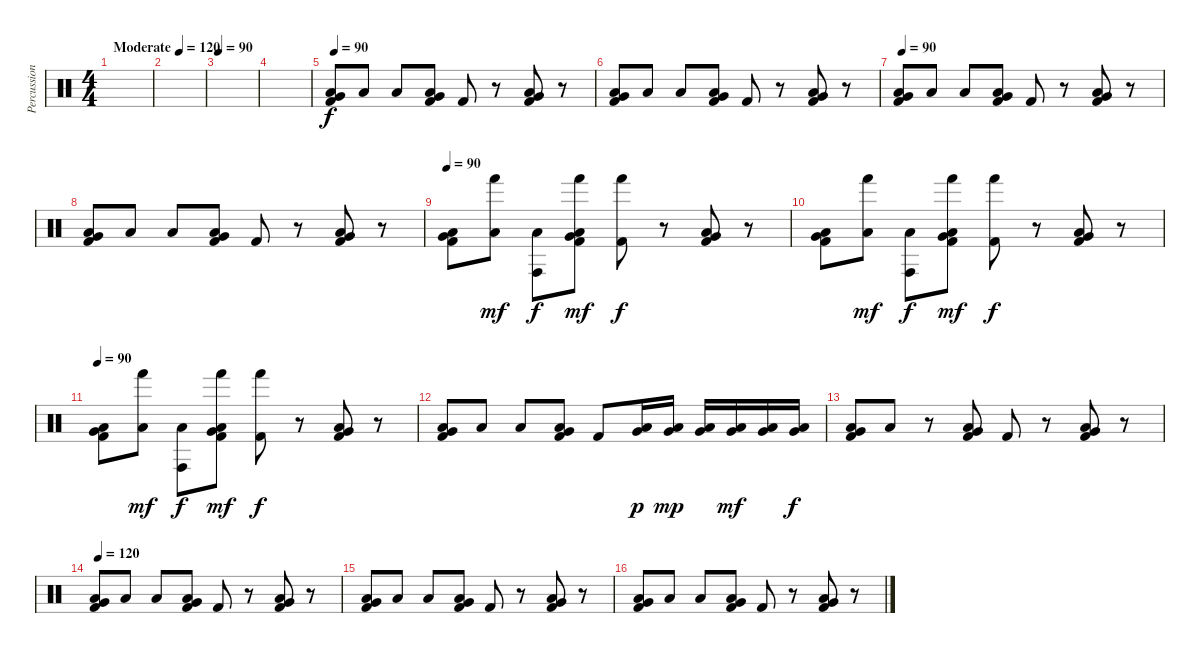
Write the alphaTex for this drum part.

\track ("Percussion" "Percussion") {instrument percussion}
\staff {score}
\articulation defaults
\ts (4 4)
\tempo (120 "Moderate")
\tempo 90
\tempo (120 "Moderate")
\clef neutral
\ks c
|
|
\tempo 90
|
|
\tempo 90
("Low Floor Tom (hit)" "Very Low Tom (hit)" "Kick (hit) 2").8 "Low Floor Tom (hit)".8 "Low Floor Tom (hit)".8 ("Low Floor Tom (hit)" "Very Low Tom (hit)" "Kick (hit) 2").8 "Kick (hit) 2".8 r.8 ("Low Floor Tom (hit)" "Very Low Tom (hit)" "Kick (hit) 2").8 r.8 |
("Low Floor Tom (hit)" "Very Low Tom (hit)" "Kick (hit) 2").8 "Low Floor Tom (hit)".8 "Low Floor Tom (hit)".8 ("Low Floor Tom (hit)" "Very Low Tom (hit)" "Kick (hit) 2").8 "Kick (hit) 2".8 r.8 ("Low Floor Tom (hit)" "Very Low Tom (hit)" "Kick (hit) 2").8 r.8 |
\tempo 90
("Low Floor Tom (hit)" "Very Low Tom (hit)" "Kick (hit) 2").8 "Low Floor Tom (hit)".8 "Low Floor Tom (hit)".8 ("Low Floor Tom (hit)" "Very Low Tom (hit)" "Kick (hit) 2").8 "Kick (hit) 2".8 r.8 ("Low Floor Tom (hit)" "Very Low Tom (hit)" "Kick (hit) 2").8 r.8 |
("Low Floor Tom (hit)" "Very Low Tom (hit)" "Kick (hit) 2").8 "Low Floor Tom (hit)".8 "Low Floor Tom (hit)".8 ("Low Floor Tom (hit)" "Very Low Tom (hit)" "Kick (hit) 2").8 "Kick (hit) 2".8 r.8 ("Low Floor Tom (hit)" "Very Low Tom (hit)" "Kick (hit) 2").8 r.8 |
\tempo 90
("Low Floor Tom (hit)" "Very Low Tom (hit)" "Kick (hit) 2").8 ("Hand (hit)" "Low Floor Tom (hit)").8{dy mf} ("Conga high (hit)" "Low Floor Tom (hit)").8{dy f} ("Low Floor Tom (hit)" "Very Low Tom (hit)" "Hand (hit)" "Kick (hit) 2").8{dy mf} ("Hand (hit)" "Kick (hit) 2").8{dy f} r.8 ("Low Floor Tom (hit)" "Very Low Tom (hit)" "Kick (hit) 2").8 r.8 |
("Low Floor Tom (hit)" "Very Low Tom (hit)" "Kick (hit) 2").8 ("Hand (hit)" "Low Floor Tom (hit)").8{dy mf} ("Conga high (hit)" "Low Floor Tom (hit)").8{dy f} ("Low Floor Tom (hit)" "Very Low Tom (hit)" "Hand (hit)" "Kick (hit) 2").8{dy mf} ("Hand (hit)" "Kick (hit) 2").8{dy f} r.8 ("Low Floor Tom (hit)" "Very Low Tom (hit)" "Kick (hit) 2").8 r.8 |
\tempo 90
("Low Floor Tom (hit)" "Very Low Tom (hit)" "Kick (hit) 2").8 ("Hand (hit)" "Low Floor Tom (hit)").8{dy mf} ("Conga high (hit)" "Low Floor Tom (hit)").8{dy f} ("Low Floor Tom (hit)" "Very Low Tom (hit)" "Hand (hit)" "Kick (hit) 2").8{dy mf} ("Hand (hit)" "Kick (hit) 2").8{dy f} r.8 ("Low Floor Tom (hit)" "Very Low Tom (hit)" "Kick (hit) 2").8 r.8 |
("Low Floor Tom (hit)" "Very Low Tom (hit)" "Kick (hit) 2").8 "Low Floor Tom (hit)".8 "Low Floor Tom (hit)".8 ("Low Floor Tom (hit)" "Very Low Tom (hit)" "Kick (hit) 2").8 "Kick (hit) 2".8 ("Low Floor Tom (hit)" "Very Low Tom (hit)").16{dy p} ("Low Floor Tom (hit)" "Very Low Tom (hit)").16{dy mp} ("Low Floor Tom (hit)" "Very Low Tom (hit)").16 ("Low Floor Tom (hit)" "Very Low Tom (hit)").16{dy mf} ("Low Floor Tom (hit)" "Very Low Tom (hit)").16 ("Low Floor Tom (hit)" "Very Low Tom (hit)").16{dy f} |
("Low Floor Tom (hit)" "Very Low Tom (hit)" "Kick (hit) 2").8 "Low Floor Tom (hit)".8 r.8 ("Low Floor Tom (hit)" "Very Low Tom (hit)" "Kick (hit) 2").8 "Kick (hit) 2".8 r.8 ("Low Floor Tom (hit)" "Very Low Tom (hit)" "Kick (hit) 2").8 r.8 |
\tempo 120
("Low Floor Tom (hit)" "Very Low Tom (hit)" "Kick (hit) 2").8 "Low Floor Tom (hit)".8 "Low Floor Tom (hit)".8 ("Low Floor Tom (hit)" "Very Low Tom (hit)" "Kick (hit) 2").8 "Kick (hit) 2".8 r.8 ("Low Floor Tom (hit)" "Very Low Tom (hit)" "Kick (hit) 2").8 r.8 |
("Low Floor Tom (hit)" "Very Low Tom (hit)" "Kick (hit) 2").8 "Low Floor Tom (hit)".8 "Low Floor Tom (hit)".8 ("Low Floor Tom (hit)" "Very Low Tom (hit)" "Kick (hit) 2").8 "Kick (hit) 2".8 r.8 ("Low Floor Tom (hit)" "Very Low Tom (hit)" "Kick (hit) 2").8 r.8 |
("Low Floor Tom (hit)" "Very Low Tom (hit)" "Kick (hit) 2").8 "Low Floor Tom (hit)".8 "Low Floor Tom (hit)".8 ("Low Floor Tom (hit)" "Very Low Tom (hit)" "Kick (hit) 2").8 "Kick (hit) 2".8 r.8 ("Low Floor Tom (hit)" "Very Low Tom (hit)" "Kick (hit) 2").8 r.8
